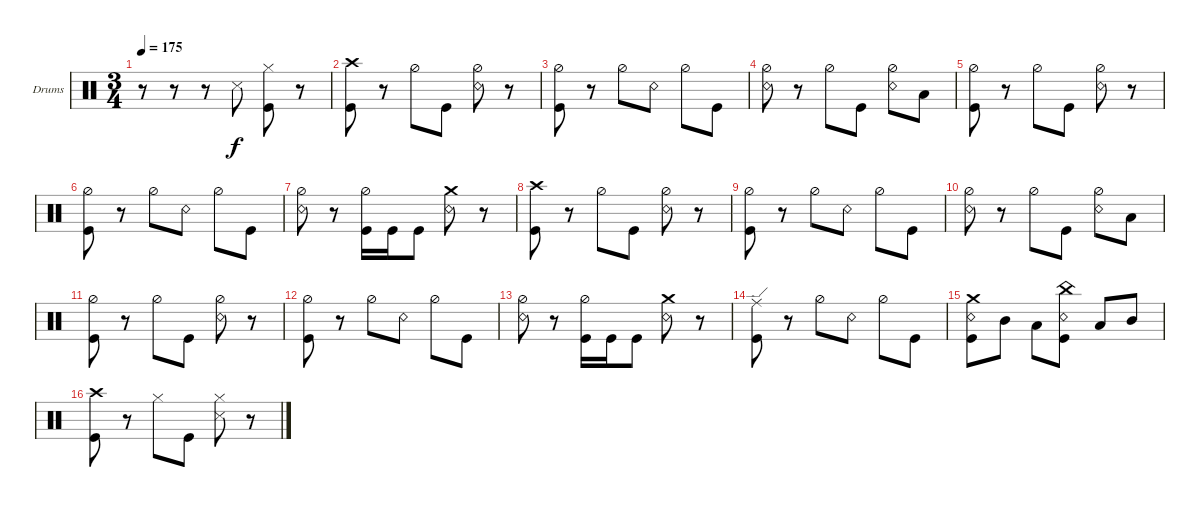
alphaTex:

\bracketExtendMode groupsimilarinstruments
\firstSystemTrackNameOrientation horizontal
\otherSystemsTrackNameOrientation horizontal
\track ("Drumkit" "Drums") {instrument percussion}
\staff {score}
\articulation defaults
\ts (3 4)
\tempo 175
\clef neutral
\ks c
r.8{dy f} r.8 r.8 "Snare (side stick) 3".8 ("Hi-Hat (closed)" "Kick (hit)").8 r.8 |
("Kick (hit)" "Crash high (hit)").8 r.8 "Hi-Hat (half)".8 "Kick (hit)".8 ("Snare (rim shot)" "Hi-Hat (half)").8 r.8 |
("Kick (hit)" "Hi-Hat (half)").8 r.8 "Hi-Hat (half)".8 "Snare (rim shot)".8 "Hi-Hat (half)".8 "Kick (hit)".8 |
("Snare (rim shot)" "Hi-Hat (half)").8 r.8 "Hi-Hat (half)".8 "Kick (hit)".8 ("Snare (rim shot)" "Hi-Hat (half)").8 "Low Tom (hit)".8 |
("Kick (hit)" "Hi-Hat (half)").8 r.8 "Hi-Hat (half)".8 "Kick (hit)".8 ("Snare (rim shot)" "Hi-Hat (half)").8 r.8 |
("Kick (hit)" "Hi-Hat (half)").8 r.8 "Hi-Hat (half)".8 "Snare (rim shot)".8 "Hi-Hat (half)".8 "Kick (hit)".8 |
("Snare (rim shot)" "Hi-Hat (half)").8 r.8 ("Kick (hit)" "Hi-Hat (half)").16 "Kick (hit)".16 "Kick (hit)".8 ("Snare (rim shot)" "Crash medium (hit)").8 r.8 |
("Kick (hit)" "Crash high (hit)").8 r.8 "Hi-Hat (half)".8 "Kick (hit)".8 ("Snare (rim shot)" "Hi-Hat (half)").8 r.8 |
("Kick (hit)" "Hi-Hat (half)").8 r.8 "Hi-Hat (half)".8 "Snare (rim shot)".8 "Hi-Hat (half)".8 "Kick (hit)".8 |
("Snare (rim shot)" "Hi-Hat (half)").8 r.8 "Hi-Hat (half)".8 "Kick (hit)".8 ("Snare (rim shot)" "Hi-Hat (half)").8 "Low Tom (hit)".8 |
("Kick (hit)" "Hi-Hat (half)").8 r.8 "Hi-Hat (half)".8 "Kick (hit)".8 ("Snare (rim shot)" "Hi-Hat (half)").8 r.8 |
("Kick (hit)" "Hi-Hat (half)").8 r.8 "Hi-Hat (half)".8 "Snare (rim shot)".8 "Hi-Hat (half)".8 "Kick (hit)".8 |
("Snare (rim shot)" "Hi-Hat (half)").8 r.8 ("Kick (hit)" "Hi-Hat (half)").16 "Kick (hit)".16 "Kick (hit)".8 ("Snare (rim shot)" "Crash medium (hit)").8 r.8 |
("Kick (hit)" "Ride (edge)").8 r.8 "Hi-Hat (half)".8 "Snare (rim shot)".8 "Hi-Hat (half)".8 "Kick (hit)".8 |
("Crash medium (hit)" "Snare (rim shot)" "Kick (hit)").8 "Mid Tom (hit)".8 "Low Tom (hit)".8 ("China (hit)" "Snare (rim shot)" "Kick (hit)").8 "Low Tom (hit)".8 "Mid Tom (hit)".8 |
("Kick (hit)" "Crash high (hit)").8 r.8 "Hi-Hat (closed)".8 "Kick (hit)".8 ("Hi-Hat (closed)" "Snare (side stick) 3").8 r.8
